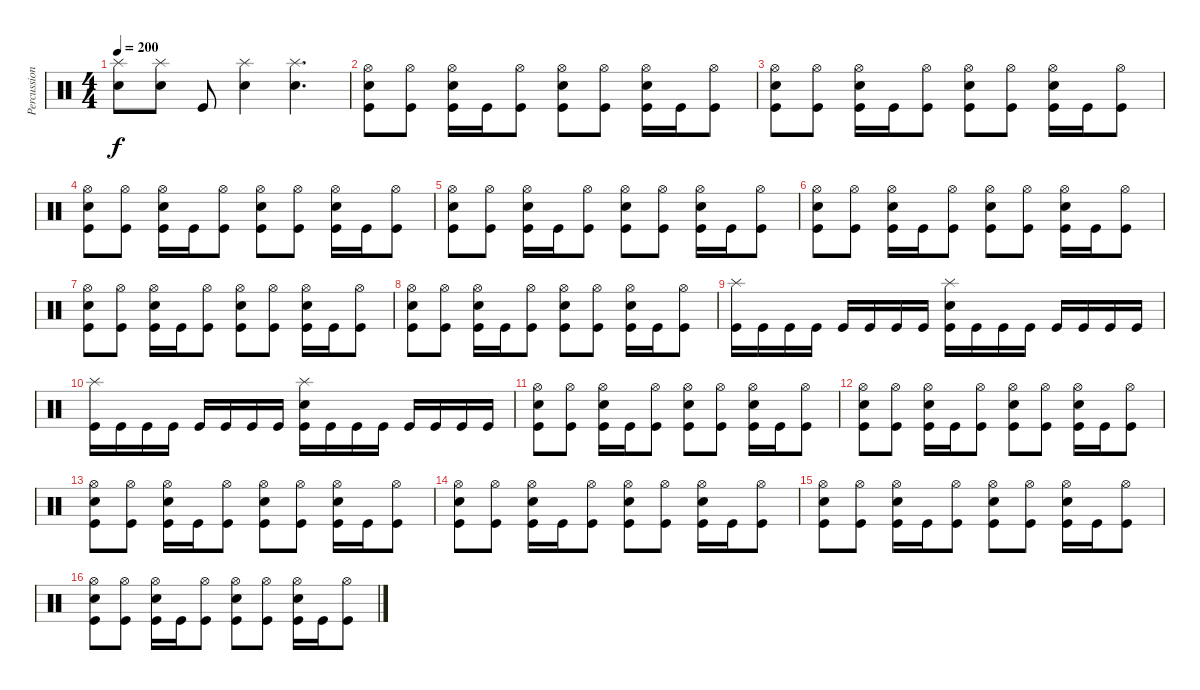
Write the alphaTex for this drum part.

\track ("Percussions" "Percussion") {instrument percussion}
\staff {score}
\articulation defaults
\ts (4 4)
\tempo 200
\clef neutral
\ks c
("Splash (hit)"{t} "Electric Snare (hit)"{t}).8{dy f} ("Splash (hit)" "Electric Snare (hit)").8 "Kick (hit)".8 ("Splash (hit)" "Electric Snare (hit)").4 ("Splash (hit)" "Electric Snare (hit)").4{d} |
("Hi-Hat (open)" "Electric Snare (hit)" "Kick (hit)").8 ("Hi-Hat (open)" "Kick (hit)").8 ("Hi-Hat (open)" "Electric Snare (hit)" "Kick (hit)").16 "Kick (hit)".16 ("Hi-Hat (open)" "Kick (hit)").8 ("Hi-Hat (open)" "Electric Snare (hit)" "Kick (hit)").8 ("Hi-Hat (open)" "Kick (hit)").8 ("Hi-Hat (open)" "Electric Snare (hit)" "Kick (hit)").16 "Kick (hit)".16 ("Hi-Hat (open)" "Kick (hit)").8 |
("Hi-Hat (open)" "Electric Snare (hit)" "Kick (hit)").8 ("Hi-Hat (open)" "Kick (hit)").8 ("Hi-Hat (open)" "Electric Snare (hit)" "Kick (hit)").16 "Kick (hit)".16 ("Hi-Hat (open)" "Kick (hit)").8 ("Hi-Hat (open)" "Electric Snare (hit)" "Kick (hit)").8 ("Hi-Hat (open)" "Kick (hit)").8 ("Hi-Hat (open)" "Electric Snare (hit)" "Kick (hit)").16 "Kick (hit)".16 ("Hi-Hat (open)" "Kick (hit)").8 |
("Hi-Hat (open)" "Electric Snare (hit)" "Kick (hit)").8 ("Hi-Hat (open)" "Kick (hit)").8 ("Hi-Hat (open)" "Electric Snare (hit)" "Kick (hit)").16 "Kick (hit)".16 ("Hi-Hat (open)" "Kick (hit)").8 ("Hi-Hat (open)" "Electric Snare (hit)" "Kick (hit)").8 ("Hi-Hat (open)" "Kick (hit)").8 ("Hi-Hat (open)" "Electric Snare (hit)" "Kick (hit)").16 "Kick (hit)".16 ("Hi-Hat (open)" "Kick (hit)").8 |
("Hi-Hat (open)" "Electric Snare (hit)" "Kick (hit)").8 ("Hi-Hat (open)" "Kick (hit)").8 ("Hi-Hat (open)" "Electric Snare (hit)" "Kick (hit)").16 "Kick (hit)".16 ("Hi-Hat (open)" "Kick (hit)").8 ("Hi-Hat (open)" "Electric Snare (hit)" "Kick (hit)").8 ("Hi-Hat (open)" "Kick (hit)").8 ("Hi-Hat (open)" "Electric Snare (hit)" "Kick (hit)").16 "Kick (hit)".16 ("Hi-Hat (open)" "Kick (hit)").8 |
("Hi-Hat (open)" "Electric Snare (hit)" "Kick (hit)").8 ("Hi-Hat (open)" "Kick (hit)").8 ("Hi-Hat (open)" "Electric Snare (hit)" "Kick (hit)").16 "Kick (hit)".16 ("Hi-Hat (open)" "Kick (hit)").8 ("Hi-Hat (open)" "Electric Snare (hit)" "Kick (hit)").8 ("Hi-Hat (open)" "Kick (hit)").8 ("Hi-Hat (open)" "Electric Snare (hit)" "Kick (hit)").16 "Kick (hit)".16 ("Hi-Hat (open)" "Kick (hit)").8 |
("Hi-Hat (open)" "Electric Snare (hit)" "Kick (hit)").8 ("Hi-Hat (open)" "Kick (hit)").8 ("Hi-Hat (open)" "Electric Snare (hit)" "Kick (hit)").16 "Kick (hit)".16 ("Hi-Hat (open)" "Kick (hit)").8 ("Hi-Hat (open)" "Electric Snare (hit)" "Kick (hit)").8 ("Hi-Hat (open)" "Kick (hit)").8 ("Hi-Hat (open)" "Electric Snare (hit)" "Kick (hit)").16 "Kick (hit)".16 ("Hi-Hat (open)" "Kick (hit)").8 |
("Hi-Hat (open)" "Electric Snare (hit)" "Kick (hit)").8 ("Hi-Hat (open)" "Kick (hit)").8 ("Hi-Hat (open)" "Electric Snare (hit)" "Kick (hit)").16 "Kick (hit)".16 ("Hi-Hat (open)" "Kick (hit)").8 ("Hi-Hat (open)" "Electric Snare (hit)" "Kick (hit)").8 ("Hi-Hat (open)" "Kick (hit)").8 ("Hi-Hat (open)" "Electric Snare (hit)" "Kick (hit)").16 "Kick (hit)".16 ("Hi-Hat (open)" "Kick (hit)").8 |
("Splash (hit)" "Kick (hit)").16 "Kick (hit)".16 "Kick (hit)".16 "Kick (hit)".16 "Kick (hit)".16 "Kick (hit)".16 "Kick (hit)".16 "Kick (hit)".16 ("Splash (hit)" "Electric Snare (hit)" "Kick (hit)").16 "Kick (hit)".16 "Kick (hit)".16 "Kick (hit)".16 "Kick (hit)".16 "Kick (hit)".16 "Kick (hit)".16 "Kick (hit)".16 |
("Splash (hit)" "Kick (hit)").16 "Kick (hit)".16 "Kick (hit)".16 "Kick (hit)".16 "Kick (hit)".16 "Kick (hit)".16 "Kick (hit)".16 "Kick (hit)".16 ("Splash (hit)" "Electric Snare (hit)" "Kick (hit)").16 "Kick (hit)".16 "Kick (hit)".16 "Kick (hit)".16 "Kick (hit)".16 "Kick (hit)".16 "Kick (hit)".16 "Kick (hit)".16 |
("Hi-Hat (open)" "Electric Snare (hit)" "Kick (hit)").8 ("Hi-Hat (open)" "Kick (hit)").8 ("Hi-Hat (open)" "Electric Snare (hit)" "Kick (hit)").16 "Kick (hit)".16 ("Hi-Hat (open)" "Kick (hit)").8 ("Hi-Hat (open)" "Electric Snare (hit)" "Kick (hit)").8 ("Hi-Hat (open)" "Kick (hit)").8 ("Hi-Hat (open)" "Electric Snare (hit)" "Kick (hit)").16 "Kick (hit)".16 ("Hi-Hat (open)" "Kick (hit)").8 |
("Hi-Hat (open)" "Electric Snare (hit)" "Kick (hit)").8 ("Hi-Hat (open)" "Kick (hit)").8 ("Hi-Hat (open)" "Electric Snare (hit)" "Kick (hit)").16 "Kick (hit)".16 ("Hi-Hat (open)" "Kick (hit)").8 ("Hi-Hat (open)" "Electric Snare (hit)" "Kick (hit)").8 ("Hi-Hat (open)" "Kick (hit)").8 ("Hi-Hat (open)" "Electric Snare (hit)" "Kick (hit)").16 "Kick (hit)".16 ("Hi-Hat (open)" "Kick (hit)").8 |
("Hi-Hat (open)" "Electric Snare (hit)" "Kick (hit)").8 ("Hi-Hat (open)" "Kick (hit)").8 ("Hi-Hat (open)" "Electric Snare (hit)" "Kick (hit)").16 "Kick (hit)".16 ("Hi-Hat (open)" "Kick (hit)").8 ("Hi-Hat (open)" "Electric Snare (hit)" "Kick (hit)").8 ("Hi-Hat (open)" "Kick (hit)").8 ("Hi-Hat (open)" "Electric Snare (hit)" "Kick (hit)").16 "Kick (hit)".16 ("Hi-Hat (open)" "Kick (hit)").8 |
("Hi-Hat (open)" "Electric Snare (hit)" "Kick (hit)").8 ("Hi-Hat (open)" "Kick (hit)").8 ("Hi-Hat (open)" "Electric Snare (hit)" "Kick (hit)").16 "Kick (hit)".16 ("Hi-Hat (open)" "Kick (hit)").8 ("Hi-Hat (open)" "Electric Snare (hit)" "Kick (hit)").8 ("Hi-Hat (open)" "Kick (hit)").8 ("Hi-Hat (open)" "Electric Snare (hit)" "Kick (hit)").16 "Kick (hit)".16 ("Hi-Hat (open)" "Kick (hit)").8 |
("Hi-Hat (open)" "Electric Snare (hit)" "Kick (hit)").8 ("Hi-Hat (open)" "Kick (hit)").8 ("Hi-Hat (open)" "Electric Snare (hit)" "Kick (hit)").16 "Kick (hit)".16 ("Hi-Hat (open)" "Kick (hit)").8 ("Hi-Hat (open)" "Electric Snare (hit)" "Kick (hit)").8 ("Hi-Hat (open)" "Kick (hit)").8 ("Hi-Hat (open)" "Electric Snare (hit)" "Kick (hit)").16 "Kick (hit)".16 ("Hi-Hat (open)" "Kick (hit)").8 |
("Hi-Hat (open)" "Electric Snare (hit)" "Kick (hit)").8 ("Hi-Hat (open)" "Kick (hit)").8 ("Hi-Hat (open)" "Electric Snare (hit)" "Kick (hit)").16 "Kick (hit)".16 ("Hi-Hat (open)" "Kick (hit)").8 ("Hi-Hat (open)" "Electric Snare (hit)" "Kick (hit)").8 ("Hi-Hat (open)" "Kick (hit)").8 ("Hi-Hat (open)" "Electric Snare (hit)" "Kick (hit)").16 "Kick (hit)".16 ("Hi-Hat (open)" "Kick (hit)").8
